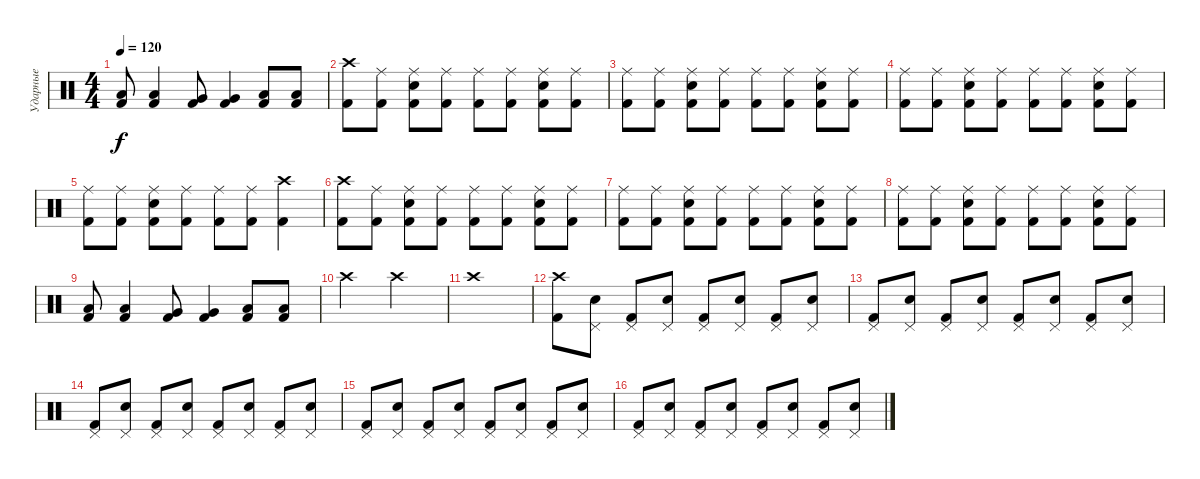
\track ("Ударные" "Ударные") {instrument percussion}
\staff {score}
\articulation defaults
\ts (4 4)
\tempo 120
\clef neutral
\ks c
("Low Tom (hit)" "Kick (hit) 2").8{dy f} ("Low Tom (hit)" "Kick (hit) 2").4 ("Very Low Tom (hit)" "Kick (hit) 2").8 ("Very Low Tom (hit)" "Kick (hit) 2").4 ("Low Floor Tom (hit)" "Kick (hit) 2").8 ("Low Floor Tom (hit)" "Kick (hit) 2").8 |
("Crash high (hit)" "Kick (hit) 2").8 ("Ride (middle)" "Kick (hit) 2").8 ("Ride (middle)" "Snare (hit) 2" "Kick (hit) 2").8 ("Ride (middle)" "Kick (hit) 2").8 ("Ride (middle)" "Kick (hit) 2").8 ("Ride (middle)" "Kick (hit) 2").8 ("Ride (middle)" "Snare (hit) 2" "Kick (hit) 2").8 ("Ride (middle)" "Kick (hit) 2").8 |
("Ride (middle)" "Kick (hit) 2").8 ("Ride (middle)" "Kick (hit) 2").8 ("Ride (middle)" "Snare (hit) 2" "Kick (hit) 2").8 ("Ride (middle)" "Kick (hit) 2").8 ("Ride (middle)" "Kick (hit) 2").8 ("Ride (middle)" "Kick (hit) 2").8 ("Ride (middle)" "Snare (hit) 2" "Kick (hit) 2").8 ("Ride (middle)" "Kick (hit) 2").8 |
("Ride (middle)" "Kick (hit) 2").8 ("Ride (middle)" "Kick (hit) 2").8 ("Ride (middle)" "Snare (hit) 2" "Kick (hit) 2").8 ("Ride (middle)" "Kick (hit) 2").8 ("Ride (middle)" "Kick (hit) 2").8 ("Ride (middle)" "Kick (hit) 2").8 ("Ride (middle)" "Snare (hit) 2" "Kick (hit) 2").8 ("Ride (middle)" "Kick (hit) 2").8 |
("Ride (middle)" "Kick (hit) 2").8 ("Ride (middle)" "Kick (hit) 2").8 ("Ride (middle)" "Snare (hit) 2" "Kick (hit) 2").8 ("Ride (middle)" "Kick (hit) 2").8 ("Ride (middle)" "Kick (hit) 2").8 ("Ride (middle)" "Kick (hit) 2").8 ("Crash high (hit)" "Kick (hit) 2").4 |
("Crash high (hit)" "Kick (hit) 2").8 ("Ride (middle)" "Kick (hit) 2").8 ("Ride (middle)" "Snare (hit) 2" "Kick (hit) 2").8 ("Ride (middle)" "Kick (hit) 2").8 ("Ride (middle)" "Kick (hit) 2").8 ("Ride (middle)" "Kick (hit) 2").8 ("Ride (middle)" "Snare (hit) 2" "Kick (hit) 2").8 ("Ride (middle)" "Kick (hit) 2").8 |
("Ride (middle)" "Kick (hit) 2").8 ("Ride (middle)" "Kick (hit) 2").8 ("Ride (middle)" "Snare (hit) 2" "Kick (hit) 2").8 ("Ride (middle)" "Kick (hit) 2").8 ("Ride (middle)" "Kick (hit) 2").8 ("Ride (middle)" "Kick (hit) 2").8 ("Ride (middle)" "Snare (hit) 2" "Kick (hit) 2").8 ("Ride (middle)" "Kick (hit) 2").8 |
("Ride (middle)" "Kick (hit) 2").8 ("Ride (middle)" "Kick (hit) 2").8 ("Ride (middle)" "Snare (hit) 2" "Kick (hit) 2").8 ("Ride (middle)" "Kick (hit) 2").8 ("Ride (middle)" "Kick (hit) 2").8 ("Ride (middle)" "Kick (hit) 2").8 ("Ride (middle)" "Snare (hit) 2" "Kick (hit) 2").8 ("Ride (middle)" "Kick (hit) 2").8 |
("Low Tom (hit)" "Kick (hit) 2").8 ("Low Tom (hit)" "Kick (hit) 2").4 ("Very Low Tom (hit)" "Kick (hit) 2").8 ("Very Low Tom (hit)" "Kick (hit) 2").4 ("Low Floor Tom (hit)" "Kick (hit) 2").8 ("Low Floor Tom (hit)" "Kick (hit) 2").8 |
"Crash high (hit)".2 "Crash high (hit)".2 |
"Crash high (hit)".1 |
("Crash high (hit)" "Kick (hit) 2").8 ("Pedal Hi-Hat (hit)" "Snare (hit) 2").8 ("Pedal Hi-Hat (hit)" "Kick (hit) 2").8 ("Pedal Hi-Hat (hit)" "Snare (hit) 2").8 ("Pedal Hi-Hat (hit)" "Kick (hit) 2").8 ("Pedal Hi-Hat (hit)" "Snare (hit) 2").8 ("Pedal Hi-Hat (hit)" "Kick (hit) 2").8 ("Pedal Hi-Hat (hit)" "Snare (hit) 2").8 |
("Pedal Hi-Hat (hit)" "Kick (hit) 2").8 ("Pedal Hi-Hat (hit)" "Snare (hit) 2").8 ("Pedal Hi-Hat (hit)" "Kick (hit) 2").8 ("Pedal Hi-Hat (hit)" "Snare (hit) 2").8 ("Pedal Hi-Hat (hit)" "Kick (hit) 2").8 ("Pedal Hi-Hat (hit)" "Snare (hit) 2").8 ("Pedal Hi-Hat (hit)" "Kick (hit) 2").8 ("Pedal Hi-Hat (hit)" "Snare (hit) 2").8 |
("Pedal Hi-Hat (hit)" "Kick (hit) 2").8 ("Pedal Hi-Hat (hit)" "Snare (hit) 2").8 ("Pedal Hi-Hat (hit)" "Kick (hit) 2").8 ("Pedal Hi-Hat (hit)" "Snare (hit) 2").8 ("Pedal Hi-Hat (hit)" "Kick (hit) 2").8 ("Pedal Hi-Hat (hit)" "Snare (hit) 2").8 ("Pedal Hi-Hat (hit)" "Kick (hit) 2").8 ("Pedal Hi-Hat (hit)" "Snare (hit) 2").8 |
("Pedal Hi-Hat (hit)" "Kick (hit) 2").8 ("Pedal Hi-Hat (hit)" "Snare (hit) 2").8 ("Pedal Hi-Hat (hit)" "Kick (hit) 2").8 ("Pedal Hi-Hat (hit)" "Snare (hit) 2").8 ("Pedal Hi-Hat (hit)" "Kick (hit) 2").8 ("Pedal Hi-Hat (hit)" "Snare (hit) 2").8 ("Pedal Hi-Hat (hit)" "Kick (hit) 2").8 ("Pedal Hi-Hat (hit)" "Snare (hit) 2").8 |
("Pedal Hi-Hat (hit)" "Kick (hit) 2").8 ("Pedal Hi-Hat (hit)" "Snare (hit) 2").8 ("Pedal Hi-Hat (hit)" "Kick (hit) 2").8 ("Pedal Hi-Hat (hit)" "Snare (hit) 2").8 ("Pedal Hi-Hat (hit)" "Kick (hit) 2").8 ("Pedal Hi-Hat (hit)" "Snare (hit) 2").8 ("Pedal Hi-Hat (hit)" "Kick (hit) 2").8 ("Pedal Hi-Hat (hit)" "Snare (hit) 2").8
